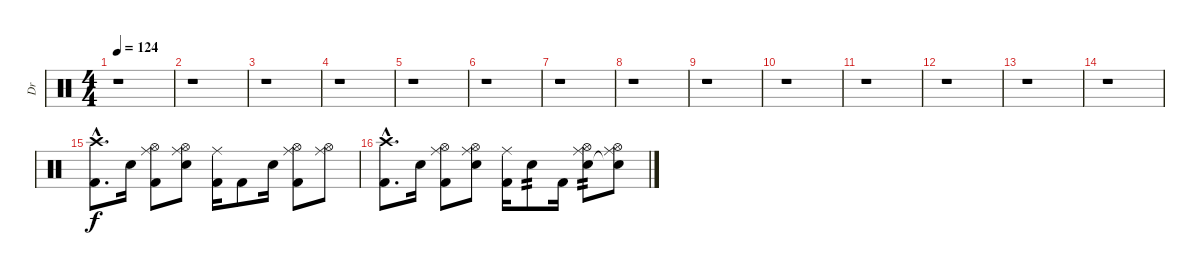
\track ("Dr" "Dr") {instrument percussion}
\staff {score}
\articulation defaults
\ts (4 4)
\tempo 124
\clef neutral
\ks c
r.1{dy f} |
r.1 |
r.1 |
r.1 |
r.1 |
r.1 |
r.1 |
r.1 |
r.1 |
r.1 |
r.1 |
r.1 |
r.1 |
r.1 |
("Crash high (hit)"{hac} "Kick (hit) 2"{hac}).8{d} "Electric Snare (hit)".16 ("Ride (middle)" "Hi-Hat (open)" "Kick (hit) 2").8 ("Ride (middle)" "Hi-Hat (open)" "Electric Snare (hit)").8 ("Ride (middle)" "Kick (hit) 2").16 "Kick (hit) 2".8 "Electric Snare (hit)".16 ("Ride (middle)" "Hi-Hat (open)" "Kick (hit) 2").8 ("Ride (middle)" "Hi-Hat (open)").8 |
("Crash high (hit)"{hac} "Kick (hit) 2"{hac}).8{d} "Electric Snare (hit)".16 ("Ride (middle)" "Hi-Hat (open)" "Kick (hit) 2").8 ("Ride (middle)" "Hi-Hat (open)" "Electric Snare (hit)").8 ("Ride (middle)" "Kick (hit) 2").16 "Electric Snare (hit)".8{tp 2} "Kick (hit) 2".16 ("Ride (middle)" "Hi-Hat (open)" "Electric Snare (hit)").8{tp 2} ("Ride (middle)" "Hi-Hat (open)" "Snare (hit)"{t}).8
